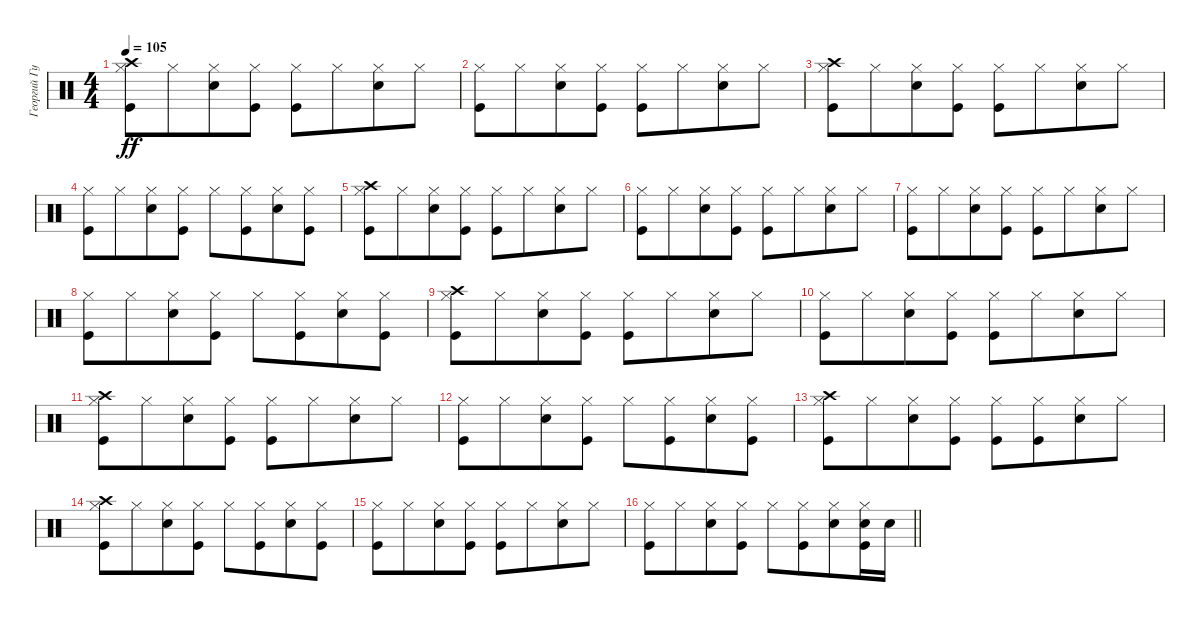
\track ("Георгий Гурьянов" "Георгий Гу") {instrument percussion}
\staff {score}
\articulation defaults
\ts (4 4)
\tempo 105
\clef neutral
\ks c
("Hi-Hat (closed)" "Crash high (hit)" "Kick (hit)").8{dy ff} "Hi-Hat (closed)".8{beam merge} ("Hi-Hat (closed)" "Snare (hit) 2").8 ("Hi-Hat (closed)" "Kick (hit)").8 ("Hi-Hat (closed)" "Kick (hit)").8 "Hi-Hat (closed)".8{beam merge} ("Hi-Hat (closed)" "Snare (hit) 2").8 "Hi-Hat (closed)".8 |
("Hi-Hat (closed)" "Kick (hit)").8 "Hi-Hat (closed)".8{beam merge} ("Hi-Hat (closed)" "Snare (hit) 2").8 ("Hi-Hat (closed)" "Kick (hit)").8 ("Hi-Hat (closed)" "Kick (hit)").8 "Hi-Hat (closed)".8{beam merge} ("Hi-Hat (closed)" "Snare (hit) 2").8 "Hi-Hat (closed)".8 |
("Hi-Hat (closed)" "Crash high (hit)" "Kick (hit)").8 "Hi-Hat (closed)".8{beam merge} ("Hi-Hat (closed)" "Snare (hit) 2").8 ("Hi-Hat (closed)" "Kick (hit)").8 ("Hi-Hat (closed)" "Kick (hit)").8 "Hi-Hat (closed)".8{beam merge} ("Hi-Hat (closed)" "Snare (hit) 2").8 "Hi-Hat (closed)".8 |
("Hi-Hat (closed)" "Kick (hit)").8 "Hi-Hat (closed)".8{beam merge} ("Hi-Hat (closed)" "Snare (hit) 2").8 ("Hi-Hat (closed)" "Kick (hit)").8 "Hi-Hat (closed)".8 ("Hi-Hat (closed)" "Kick (hit)").8{beam merge} ("Hi-Hat (closed)" "Snare (hit) 2").8 ("Hi-Hat (closed)" "Kick (hit)").8 |
("Hi-Hat (closed)" "Crash high (hit)" "Kick (hit)").8 "Hi-Hat (closed)".8{beam merge} ("Hi-Hat (closed)" "Snare (hit) 2").8 ("Hi-Hat (closed)" "Kick (hit)").8 ("Hi-Hat (closed)" "Kick (hit)").8 "Hi-Hat (closed)".8{beam merge} ("Hi-Hat (closed)" "Snare (hit) 2").8 "Hi-Hat (closed)".8 |
("Hi-Hat (closed)" "Kick (hit)").8 "Hi-Hat (closed)".8{beam merge} ("Hi-Hat (closed)" "Snare (hit) 2").8 ("Hi-Hat (closed)" "Kick (hit)").8 ("Hi-Hat (closed)" "Kick (hit)").8 "Hi-Hat (closed)".8{beam merge} ("Hi-Hat (closed)" "Snare (hit) 2").8 "Hi-Hat (closed)".8 |
("Hi-Hat (closed)" "Kick (hit)").8 "Hi-Hat (closed)".8{beam merge} ("Hi-Hat (closed)" "Snare (hit) 2").8 ("Hi-Hat (closed)" "Kick (hit)").8 ("Hi-Hat (closed)" "Kick (hit)").8 "Hi-Hat (closed)".8{beam merge} ("Hi-Hat (closed)" "Snare (hit) 2").8 "Hi-Hat (closed)".8 |
("Hi-Hat (closed)" "Kick (hit)").8 "Hi-Hat (closed)".8{beam merge} ("Hi-Hat (closed)" "Snare (hit) 2").8 ("Hi-Hat (closed)" "Kick (hit)").8 "Hi-Hat (closed)".8 ("Hi-Hat (closed)" "Kick (hit)").8{beam merge} ("Hi-Hat (closed)" "Snare (hit) 2").8 ("Hi-Hat (closed)" "Kick (hit)").8 |
("Hi-Hat (closed)" "Crash high (hit)" "Kick (hit)").8 "Hi-Hat (closed)".8{beam merge} ("Hi-Hat (closed)" "Snare (hit) 2").8 ("Hi-Hat (closed)" "Kick (hit)").8 ("Hi-Hat (closed)" "Kick (hit)").8 "Hi-Hat (closed)".8{beam merge} ("Hi-Hat (closed)" "Snare (hit) 2").8 "Hi-Hat (closed)".8 |
("Hi-Hat (closed)" "Kick (hit)").8 "Hi-Hat (closed)".8{beam merge} ("Hi-Hat (closed)" "Snare (hit) 2").8 ("Hi-Hat (closed)" "Kick (hit)").8 ("Hi-Hat (closed)" "Kick (hit)").8 "Hi-Hat (closed)".8{beam merge} ("Hi-Hat (closed)" "Snare (hit) 2").8 "Hi-Hat (closed)".8 |
("Hi-Hat (closed)" "Crash high (hit)" "Kick (hit)").8 "Hi-Hat (closed)".8{beam merge} ("Hi-Hat (closed)" "Snare (hit) 2").8 ("Hi-Hat (closed)" "Kick (hit)").8 ("Hi-Hat (closed)" "Kick (hit)").8 "Hi-Hat (closed)".8{beam merge} ("Hi-Hat (closed)" "Snare (hit) 2").8 "Hi-Hat (closed)".8 |
("Hi-Hat (closed)" "Kick (hit)").8 "Hi-Hat (closed)".8{beam merge} ("Hi-Hat (closed)" "Snare (hit) 2").8 ("Hi-Hat (closed)" "Kick (hit)").8 "Hi-Hat (closed)".8 ("Hi-Hat (closed)" "Kick (hit)").8{beam merge} ("Hi-Hat (closed)" "Snare (hit) 2").8 ("Hi-Hat (closed)" "Kick (hit)").8 |
("Hi-Hat (closed)" "Crash high (hit)" "Kick (hit)").8 "Hi-Hat (closed)".8{beam merge} ("Hi-Hat (closed)" "Snare (hit) 2").8 ("Hi-Hat (closed)" "Kick (hit)").8 ("Hi-Hat (closed)" "Kick (hit)").8 ("Hi-Hat (closed)" "Kick (hit)").8{beam merge} ("Hi-Hat (closed)" "Snare (hit) 2").8 "Hi-Hat (closed)".8 |
("Hi-Hat (closed)" "Crash high (hit)" "Kick (hit)").8 "Hi-Hat (closed)".8{beam merge} ("Hi-Hat (closed)" "Snare (hit) 2").8 ("Hi-Hat (closed)" "Kick (hit)").8 "Hi-Hat (closed)".8 ("Hi-Hat (closed)" "Kick (hit)").8{beam merge} ("Hi-Hat (closed)" "Snare (hit) 2").8 ("Hi-Hat (closed)" "Kick (hit)").8 |
("Hi-Hat (closed)" "Kick (hit)").8 "Hi-Hat (closed)".8{beam merge} ("Hi-Hat (closed)" "Snare (hit) 2").8 ("Hi-Hat (closed)" "Kick (hit)").8 ("Hi-Hat (closed)" "Kick (hit)").8 "Hi-Hat (closed)".8{beam merge} ("Hi-Hat (closed)" "Snare (hit) 2").8 "Hi-Hat (closed)".8 |
\barLineRight lightlight
("Hi-Hat (closed)" "Kick (hit)").8 "Hi-Hat (closed)".8{beam merge} ("Hi-Hat (closed)" "Snare (hit) 2").8 ("Hi-Hat (closed)" "Kick (hit)").8 "Hi-Hat (closed)".8 ("Hi-Hat (closed)" "Kick (hit)").8{beam merge} ("Hi-Hat (closed)" "Snare (hit) 2").8 ("Hi-Hat (closed)" "Snare (hit) 2" "Kick (hit)").16 "Snare (hit) 2".16
